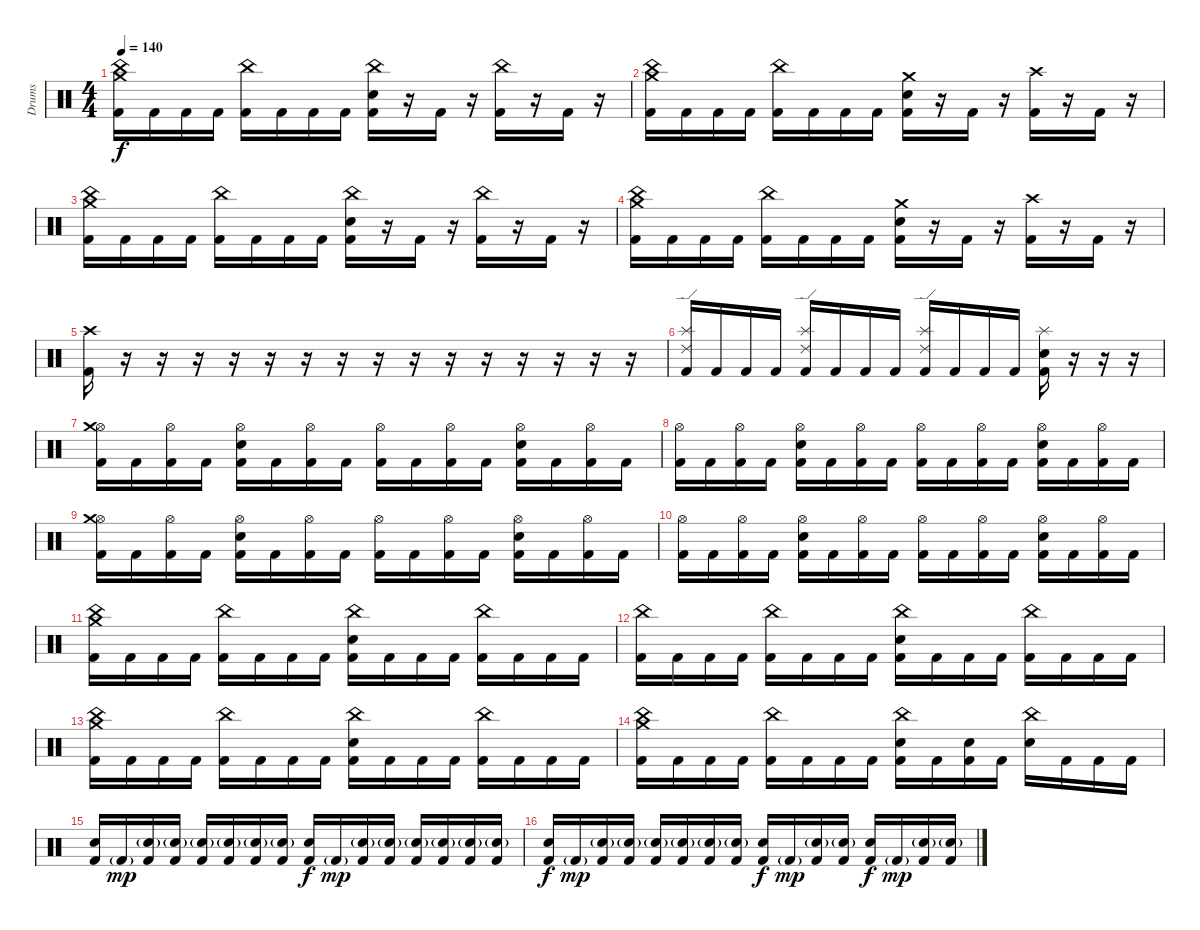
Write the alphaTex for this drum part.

\track ("Drums" "Drums") {instrument percussion}
\staff {score}
\articulation defaults
\ts (4 4)
\tempo 140
\clef neutral
\ks c
("China (hit)" "Crash medium (hit)" "Kick (hit) 2").16{dy f} "Kick (hit) 2".16 "Kick (hit) 2".16 "Kick (hit) 2".16 ("China (hit)" "Kick (hit) 2").16 "Kick (hit) 2".16 "Kick (hit) 2".16 "Kick (hit) 2".16 ("China (hit)" "Electric Snare (hit)" "Kick (hit) 2").16 r.16 "Kick (hit) 2".16 r.16 ("China (hit)" "Kick (hit) 2").16 r.16 "Kick (hit) 2".16 r.16 |
("China (hit)" "Crash medium (hit)" "Kick (hit) 2").16 "Kick (hit) 2".16 "Kick (hit) 2".16 "Kick (hit) 2".16 ("China (hit)" "Kick (hit) 2").16 "Kick (hit) 2".16 "Kick (hit) 2".16 "Kick (hit) 2".16 ("Crash medium (hit)" "Electric Snare (hit)" "Kick (hit) 2").16 r.16 "Kick (hit) 2".16 r.16 ("Crash high (hit)" "Kick (hit) 2").16 r.16 "Kick (hit) 2".16 r.16 |
("China (hit)" "Crash medium (hit)" "Kick (hit) 2").16 "Kick (hit) 2".16 "Kick (hit) 2".16 "Kick (hit) 2".16 ("China (hit)" "Kick (hit) 2").16 "Kick (hit) 2".16 "Kick (hit) 2".16 "Kick (hit) 2".16 ("China (hit)" "Electric Snare (hit)" "Kick (hit) 2").16 r.16 "Kick (hit) 2".16 r.16 ("China (hit)" "Kick (hit) 2").16 r.16 "Kick (hit) 2".16 r.16 |
("China (hit)" "Crash medium (hit)" "Kick (hit) 2").16 "Kick (hit) 2".16 "Kick (hit) 2".16 "Kick (hit) 2".16 ("China (hit)" "Kick (hit) 2").16 "Kick (hit) 2".16 "Kick (hit) 2".16 "Kick (hit) 2".16 ("Crash medium (hit)" "Electric Snare (hit)" "Kick (hit) 2").16 r.16 "Kick (hit) 2".16 r.16 ("Crash high (hit)" "Kick (hit) 2").16 r.16 "Kick (hit) 2".16 r.16 |
("Crash high (hit)" "Kick (hit) 2").16 r.16 r.16 r.16 r.16 r.16 r.16 r.16 r.16 r.16 r.16 r.16 r.16 r.16 r.16 r.16 |
("Splash (hit)" "Ride (edge) 2" "Kick (hit) 2").16 "Kick (hit) 2".16 "Kick (hit) 2".16 "Kick (hit) 2".16 ("Splash (hit)" "Ride (edge) 2" "Kick (hit) 2").16 "Kick (hit) 2".16 "Kick (hit) 2".16 "Kick (hit) 2".16 ("Splash (hit)" "Ride (edge) 2" "Kick (hit) 2").16 "Kick (hit) 2".16 "Kick (hit) 2".16 "Kick (hit) 2".16 ("Splash (hit)" "Electric Snare (hit)" "Kick (hit) 2").16 r.16 r.16 r.16 |
("Hi-Hat (open)" "Crash medium (hit)" "Kick (hit) 2").16 "Kick (hit) 2".16 ("Hi-Hat (open)" "Kick (hit) 2").16 "Kick (hit) 2".16 ("Hi-Hat (open)" "Electric Snare (hit)" "Kick (hit) 2").16 "Kick (hit) 2".16 ("Hi-Hat (open)" "Kick (hit) 2").16 "Kick (hit) 2".16 ("Hi-Hat (open)" "Kick (hit) 2").16 "Kick (hit) 2".16 ("Hi-Hat (open)" "Kick (hit) 2").16 "Kick (hit) 2".16 ("Hi-Hat (open)" "Electric Snare (hit)" "Kick (hit) 2").16 "Kick (hit) 2".16 ("Hi-Hat (open)" "Kick (hit) 2").16 "Kick (hit) 2".16 |
("Hi-Hat (open)" "Kick (hit) 2").16 "Kick (hit) 2".16 ("Hi-Hat (open)" "Kick (hit) 2").16 "Kick (hit) 2".16 ("Hi-Hat (open)" "Electric Snare (hit)" "Kick (hit) 2").16 "Kick (hit) 2".16 ("Hi-Hat (open)" "Kick (hit) 2").16 "Kick (hit) 2".16 ("Hi-Hat (open)" "Kick (hit) 2").16 "Kick (hit) 2".16 ("Hi-Hat (open)" "Kick (hit) 2").16 "Kick (hit) 2".16 ("Hi-Hat (open)" "Electric Snare (hit)" "Kick (hit) 2").16 "Kick (hit) 2".16 ("Hi-Hat (open)" "Kick (hit) 2").16 "Kick (hit) 2".16 |
("Hi-Hat (open)" "Crash medium (hit)" "Kick (hit) 2").16 "Kick (hit) 2".16 ("Hi-Hat (open)" "Kick (hit) 2").16 "Kick (hit) 2".16 ("Hi-Hat (open)" "Electric Snare (hit)" "Kick (hit) 2").16 "Kick (hit) 2".16 ("Hi-Hat (open)" "Kick (hit) 2").16 "Kick (hit) 2".16 ("Hi-Hat (open)" "Kick (hit) 2").16 "Kick (hit) 2".16 ("Hi-Hat (open)" "Kick (hit) 2").16 "Kick (hit) 2".16 ("Hi-Hat (open)" "Electric Snare (hit)" "Kick (hit) 2").16 "Kick (hit) 2".16 ("Hi-Hat (open)" "Kick (hit) 2").16 "Kick (hit) 2".16 |
("Hi-Hat (open)" "Kick (hit) 2").16 "Kick (hit) 2".16 ("Hi-Hat (open)" "Kick (hit) 2").16 "Kick (hit) 2".16 ("Hi-Hat (open)" "Electric Snare (hit)" "Kick (hit) 2").16 "Kick (hit) 2".16 ("Hi-Hat (open)" "Kick (hit) 2").16 "Kick (hit) 2".16 ("Hi-Hat (open)" "Kick (hit) 2").16 "Kick (hit) 2".16 ("Hi-Hat (open)" "Kick (hit) 2").16 "Kick (hit) 2".16 ("Hi-Hat (open)" "Electric Snare (hit)" "Kick (hit) 2").16 "Kick (hit) 2".16 ("Hi-Hat (open)" "Kick (hit) 2").16 "Kick (hit) 2".16 |
("China (hit)" "Crash medium (hit)" "Kick (hit) 2").16 "Kick (hit) 2".16 "Kick (hit) 2".16 "Kick (hit) 2".16 ("China (hit)" "Kick (hit) 2").16 "Kick (hit) 2".16 "Kick (hit) 2".16 "Kick (hit) 2".16 ("China (hit)" "Electric Snare (hit)" "Kick (hit) 2").16 "Kick (hit) 2".16 "Kick (hit) 2".16 "Kick (hit) 2".16 ("China (hit)" "Kick (hit) 2").16 "Kick (hit) 2".16 "Kick (hit) 2".16 "Kick (hit) 2".16 |
("China (hit)" "Kick (hit) 2").16 "Kick (hit) 2".16 "Kick (hit) 2".16 "Kick (hit) 2".16 ("China (hit)" "Kick (hit) 2").16 "Kick (hit) 2".16 "Kick (hit) 2".16 "Kick (hit) 2".16 ("China (hit)" "Electric Snare (hit)" "Kick (hit) 2").16 "Kick (hit) 2".16 "Kick (hit) 2".16 "Kick (hit) 2".16 ("China (hit)" "Kick (hit) 2").16 "Kick (hit) 2".16 "Kick (hit) 2".16 "Kick (hit) 2".16 |
("China (hit)" "Crash medium (hit)" "Kick (hit) 2").16 "Kick (hit) 2".16 "Kick (hit) 2".16 "Kick (hit) 2".16 ("China (hit)" "Kick (hit) 2").16 "Kick (hit) 2".16 "Kick (hit) 2".16 "Kick (hit) 2".16 ("China (hit)" "Electric Snare (hit)" "Kick (hit) 2").16 "Kick (hit) 2".16 "Kick (hit) 2".16 "Kick (hit) 2".16 ("China (hit)" "Kick (hit) 2").16 "Kick (hit) 2".16 "Kick (hit) 2".16 "Kick (hit) 2".16 |
("China (hit)" "Crash medium (hit)" "Kick (hit) 2").16 "Kick (hit) 2".16 "Kick (hit) 2".16 "Kick (hit) 2".16 ("China (hit)" "Kick (hit) 2").16 "Kick (hit) 2".16 "Kick (hit) 2".16 "Kick (hit) 2".16 ("China (hit)" "Electric Snare (hit)" "Kick (hit) 2").16 "Kick (hit) 2".16 ("Electric Snare (hit)" "Kick (hit) 2").16 "Kick (hit) 2".16 ("China (hit)" "Electric Snare (hit)").16 "Kick (hit) 2".16 "Kick (hit) 2".16 "Kick (hit) 2".16 |
("Electric Snare (hit)" "Kick (hit) 2").16 "Kick (hit) 2"{g}.16{dy mp} ("Electric Snare (hit)"{g} "Kick (hit) 2").16 ("Electric Snare (hit)"{g} "Kick (hit) 2").16 ("Electric Snare (hit)"{g} "Kick (hit) 2").16 ("Electric Snare (hit)"{g} "Kick (hit) 2").16 ("Electric Snare (hit)"{g} "Kick (hit) 2").16 ("Electric Snare (hit)"{g} "Kick (hit) 2").16 ("Electric Snare (hit)" "Kick (hit) 2").16{dy f} "Kick (hit) 2"{g}.16{dy mp} ("Electric Snare (hit)"{g} "Kick (hit) 2").16 ("Electric Snare (hit)"{g} "Kick (hit) 2").16 ("Electric Snare (hit)"{g} "Kick (hit) 2").16 ("Electric Snare (hit)"{g} "Kick (hit) 2").16 ("Electric Snare (hit)"{g} "Kick (hit) 2").16 ("Electric Snare (hit)"{g} "Kick (hit) 2").16 |
("Electric Snare (hit)" "Kick (hit) 2").16{dy f} "Kick (hit) 2"{g}.16{dy mp} ("Electric Snare (hit)"{g} "Kick (hit) 2").16 ("Electric Snare (hit)"{g} "Kick (hit) 2").16 ("Electric Snare (hit)"{g} "Kick (hit) 2").16 ("Electric Snare (hit)"{g} "Kick (hit) 2").16 ("Electric Snare (hit)"{g} "Kick (hit) 2").16 ("Electric Snare (hit)"{g} "Kick (hit) 2").16 ("Electric Snare (hit)" "Kick (hit) 2").16{dy f} "Kick (hit) 2"{g}.16{dy mp} ("Electric Snare (hit)"{g} "Kick (hit) 2").16 ("Electric Snare (hit)"{g} "Kick (hit) 2").16 ("Electric Snare (hit)" "Kick (hit) 2").16{dy f} "Kick (hit) 2"{g}.16{dy mp} ("Electric Snare (hit)"{g} "Kick (hit) 2").16 ("Electric Snare (hit)"{g} "Kick (hit) 2").16
